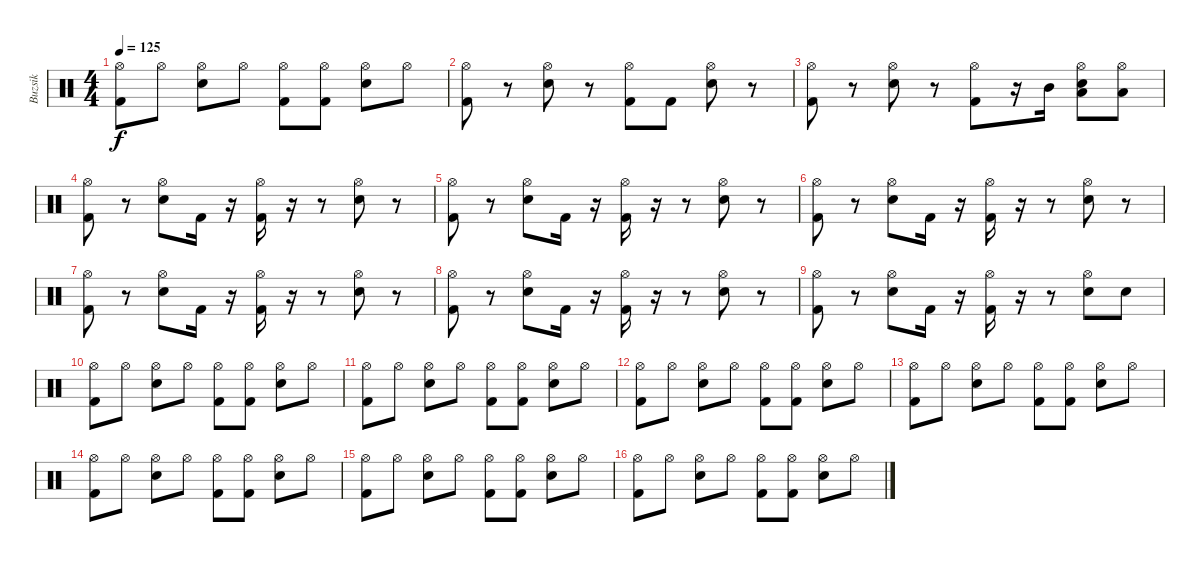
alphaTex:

\track ("Buzsik" "Buzsik") {instrument percussion}
\staff {score}
\articulation defaults
\ts (4 4)
\tempo 125
\clef neutral
\ks c
("Hi-Hat (open)" "Kick (hit) 2").8{dy f} "Hi-Hat (open)".8 ("Hi-Hat (open)" "Electric Snare (hit)").8 "Hi-Hat (open)".8 ("Hi-Hat (open)" "Kick (hit) 2").8 ("Hi-Hat (open)" "Kick (hit) 2").8 ("Hi-Hat (open)" "Electric Snare (hit)").8 "Hi-Hat (open)".8 |
("Hi-Hat (open)" "Kick (hit) 2").8 r.8 ("Hi-Hat (open)" "Electric Snare (hit)").8 r.8 ("Hi-Hat (open)" "Kick (hit) 2").8 "Kick (hit) 2".8 ("Hi-Hat (open)" "Electric Snare (hit)").8 r.8 |
("Hi-Hat (open)" "Kick (hit) 2").8 r.8 ("Hi-Hat (open)" "Electric Snare (hit)").8 r.8 ("Hi-Hat (open)" "Kick (hit) 2").8 r.16 "Mid Tom (hit)".16 ("Hi-Hat (open)" "Low Tom (hit)" "Electric Snare (hit)").8 ("Hi-Hat (open)" "Low Tom (hit)").8 |
("Hi-Hat (open)" "Kick (hit) 2").8 r.8 ("Hi-Hat (open)" "Electric Snare (hit)").8 "Kick (hit) 2".16 r.16 ("Hi-Hat (open)" "Kick (hit) 2").16 r.16 r.8 ("Hi-Hat (open)" "Electric Snare (hit)").8 r.8 |
("Hi-Hat (open)" "Kick (hit) 2").8 r.8 ("Hi-Hat (open)" "Electric Snare (hit)").8 "Kick (hit) 2".16 r.16 ("Hi-Hat (open)" "Kick (hit) 2").16 r.16 r.8 ("Hi-Hat (open)" "Electric Snare (hit)").8 r.8 |
("Hi-Hat (open)" "Kick (hit) 2").8 r.8 ("Hi-Hat (open)" "Electric Snare (hit)").8 "Kick (hit) 2".16 r.16 ("Hi-Hat (open)" "Kick (hit) 2").16 r.16 r.8 ("Hi-Hat (open)" "Electric Snare (hit)").8 r.8 |
("Hi-Hat (open)" "Kick (hit) 2").8 r.8 ("Hi-Hat (open)" "Electric Snare (hit)").8 "Kick (hit) 2".16 r.16 ("Hi-Hat (open)" "Kick (hit) 2").16 r.16 r.8 ("Hi-Hat (open)" "Electric Snare (hit)").8 r.8 |
("Hi-Hat (open)" "Kick (hit) 2").8 r.8 ("Hi-Hat (open)" "Electric Snare (hit)").8 "Kick (hit) 2".16 r.16 ("Hi-Hat (open)" "Kick (hit) 2").16 r.16 r.8 ("Hi-Hat (open)" "Electric Snare (hit)").8 r.8 |
("Hi-Hat (open)" "Kick (hit) 2").8 r.8 ("Hi-Hat (open)" "Electric Snare (hit)").8 "Kick (hit) 2".16 r.16 ("Hi-Hat (open)" "Kick (hit) 2").16 r.16 r.8 ("Hi-Hat (open)" "Electric Snare (hit)").8 "Electric Snare (hit)".8 |
("Hi-Hat (open)" "Kick (hit) 2").8 "Hi-Hat (open)".8 ("Hi-Hat (open)" "Electric Snare (hit)").8 "Hi-Hat (open)".8 ("Hi-Hat (open)" "Kick (hit) 2").8 ("Hi-Hat (open)" "Kick (hit) 2").8 ("Hi-Hat (open)" "Electric Snare (hit)").8 "Hi-Hat (open)".8 |
("Hi-Hat (open)" "Kick (hit) 2").8 "Hi-Hat (open)".8 ("Hi-Hat (open)" "Electric Snare (hit)").8 "Hi-Hat (open)".8 ("Hi-Hat (open)" "Kick (hit) 2").8 ("Hi-Hat (open)" "Kick (hit) 2").8 ("Hi-Hat (open)" "Electric Snare (hit)").8 "Hi-Hat (open)".8 |
("Hi-Hat (open)" "Kick (hit) 2").8 "Hi-Hat (open)".8 ("Hi-Hat (open)" "Electric Snare (hit)").8 "Hi-Hat (open)".8 ("Hi-Hat (open)" "Kick (hit) 2").8 ("Hi-Hat (open)" "Kick (hit) 2").8 ("Hi-Hat (open)" "Electric Snare (hit)").8 "Hi-Hat (open)".8 |
("Hi-Hat (open)" "Kick (hit) 2").8 "Hi-Hat (open)".8 ("Hi-Hat (open)" "Electric Snare (hit)").8 "Hi-Hat (open)".8 ("Hi-Hat (open)" "Kick (hit) 2").8 ("Hi-Hat (open)" "Kick (hit) 2").8 ("Hi-Hat (open)" "Electric Snare (hit)").8 "Hi-Hat (open)".8 |
("Hi-Hat (open)" "Kick (hit) 2").8 "Hi-Hat (open)".8 ("Hi-Hat (open)" "Electric Snare (hit)").8 "Hi-Hat (open)".8 ("Hi-Hat (open)" "Kick (hit) 2").8 ("Hi-Hat (open)" "Kick (hit) 2").8 ("Hi-Hat (open)" "Electric Snare (hit)").8 "Hi-Hat (open)".8 |
("Hi-Hat (open)" "Kick (hit) 2").8 "Hi-Hat (open)".8 ("Hi-Hat (open)" "Electric Snare (hit)").8 "Hi-Hat (open)".8 ("Hi-Hat (open)" "Kick (hit) 2").8 ("Hi-Hat (open)" "Kick (hit) 2").8 ("Hi-Hat (open)" "Electric Snare (hit)").8 "Hi-Hat (open)".8 |
("Hi-Hat (open)" "Kick (hit) 2").8 "Hi-Hat (open)".8 ("Hi-Hat (open)" "Electric Snare (hit)").8 "Hi-Hat (open)".8 ("Hi-Hat (open)" "Kick (hit) 2").8 ("Hi-Hat (open)" "Kick (hit) 2").8 ("Hi-Hat (open)" "Electric Snare (hit)").8 "Hi-Hat (open)".8
